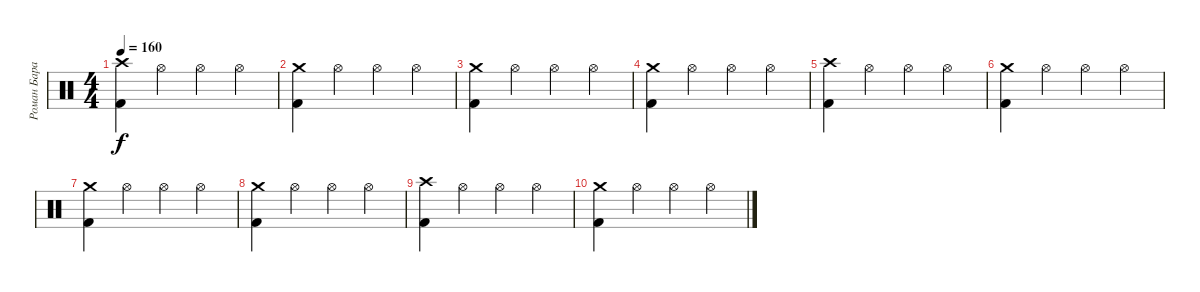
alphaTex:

\track ("Роман Баранюк" "Роман Бара") {instrument percussion}
\staff {score}
\articulation defaults
\ts (4 4)
\tempo 160
\clef neutral
\ks c
("Crash high (hit)" "Kick (hit) 2").4{dy f} "Hi-Hat (open)".4 "Hi-Hat (open)".4 "Hi-Hat (open)".4 |
("Crash medium (hit)" "Kick (hit) 2").4 "Hi-Hat (open)".4 "Hi-Hat (open)".4 "Hi-Hat (open)".4 |
("Crash medium (hit)" "Kick (hit) 2").4 "Hi-Hat (open)".4 "Hi-Hat (open)".4 "Hi-Hat (open)".4 |
("Crash medium (hit)" "Kick (hit) 2").4 "Hi-Hat (open)".4 "Hi-Hat (open)".4 "Hi-Hat (open)".4 |
("Crash high (hit)" "Kick (hit) 2").4 "Hi-Hat (open)".4 "Hi-Hat (open)".4 "Hi-Hat (open)".4 |
("Crash medium (hit)" "Kick (hit) 2").4 "Hi-Hat (open)".4 "Hi-Hat (open)".4 "Hi-Hat (open)".4 |
("Crash medium (hit)" "Kick (hit) 2").4 "Hi-Hat (open)".4 "Hi-Hat (open)".4 "Hi-Hat (open)".4 |
("Crash medium (hit)" "Kick (hit) 2").4 "Hi-Hat (open)".4 "Hi-Hat (open)".4 "Hi-Hat (open)".4 |
("Crash high (hit)" "Kick (hit) 2").4 "Hi-Hat (open)".4 "Hi-Hat (open)".4 "Hi-Hat (open)".4 |
("Crash medium (hit)" "Kick (hit) 2").4 "Hi-Hat (open)".4 "Hi-Hat (open)".4 "Hi-Hat (open)".4
